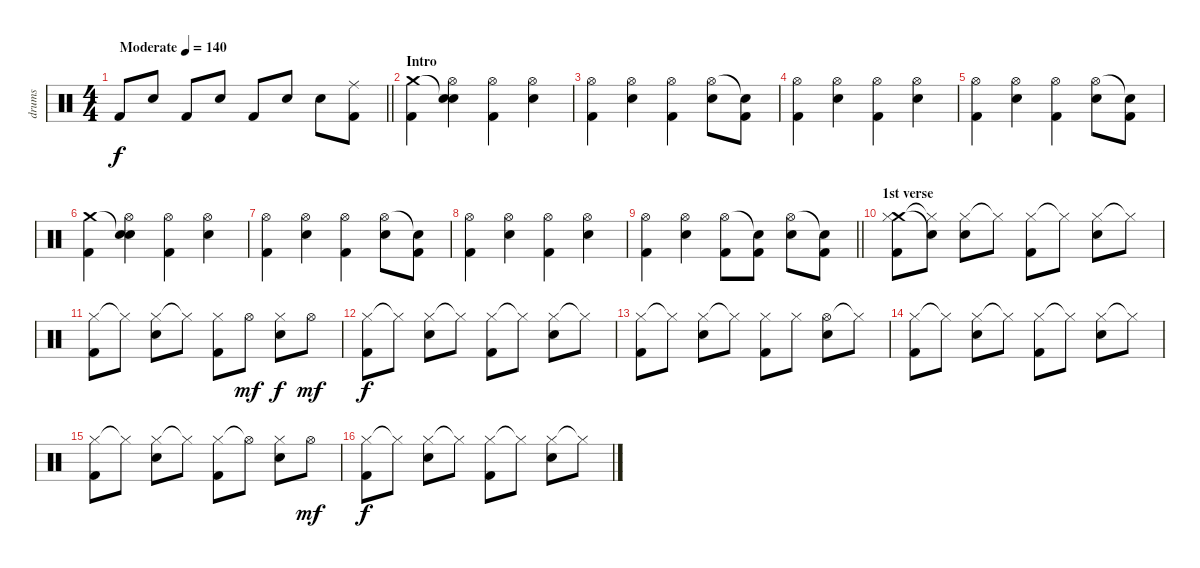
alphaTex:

\track ("drums" "drums") {instrument percussion}
\staff {score}
\articulation defaults
\ts (4 4)
\tempo (140 "Moderate")
\clef neutral
\barLineRight lightlight
\ks c "Kick (hit) 2".8{dy f} "Snare (hit) 2".8 "Kick (hit) 2".8 "Snare (hit) 2".8 "Kick (hit) 2".8 "Snare (hit) 2".8 "Snare (hit) 2".8
("Ride (middle)" "Kick (hit) 2").8 |
\section ("" "Intro")
("Crash medium (hit)" "Kick (hit) 2").4 ("Snare (hit)"{t} "Hi-Hat (open)" "Electric Snare (hit)").4 ("Hi-Hat (open)" "Kick (hit) 2").4 ("Hi-Hat (open)" "Electric Snare (hit)").4 |
("Hi-Hat (open)" "Kick (hit) 2").4 ("Hi-Hat (open)" "Electric Snare (hit)").4 ("Hi-Hat (open)" "Kick (hit) 2").4 ("Hi-Hat (open)" "Electric Snare (hit)").8 ("Snare (hit)"{t} "Kick (hit) 2").8 |
("Hi-Hat (open)" "Kick (hit) 2").4 ("Hi-Hat (open)" "Electric Snare (hit)").4 ("Hi-Hat (open)" "Kick (hit) 2").4 ("Hi-Hat (open)" "Electric Snare (hit)").4 |
("Hi-Hat (open)" "Kick (hit) 2").4 ("Hi-Hat (open)" "Electric Snare (hit)").4 ("Hi-Hat (open)" "Kick (hit) 2").4 ("Hi-Hat (open)" "Electric Snare (hit)").8 ("Snare (hit)"{t} "Kick (hit) 2").8 |
("Crash medium (hit)" "Kick (hit) 2").4 ("Snare (hit)"{t} "Hi-Hat (open)" "Electric Snare (hit)").4 ("Hi-Hat (open)" "Kick (hit) 2").4 ("Hi-Hat (open)" "Electric Snare (hit)").4 |
("Hi-Hat (open)" "Kick (hit) 2").4 ("Hi-Hat (open)" "Electric Snare (hit)").4 ("Hi-Hat (open)" "Kick (hit) 2").4 ("Hi-Hat (open)" "Electric Snare (hit)").8 ("Snare (hit)"{t} "Kick (hit) 2").8 |
("Hi-Hat (open)" "Kick (hit) 2").4 ("Hi-Hat (open)" "Electric Snare (hit)").4 ("Hi-Hat (open)" "Kick (hit) 2").4 ("Hi-Hat (open)" "Electric Snare (hit)").4 |
\barLineRight lightlight
("Hi-Hat (open)" "Kick (hit) 2").4 ("Hi-Hat (open)" "Electric Snare (hit)").4 ("Hi-Hat (open)" "Kick (hit) 2").8 ("Snare (hit)"{t} "Kick (hit) 2").8 ("Hi-Hat (open)" "Electric Snare (hit)").8 ("Snare (hit)"{t} "Kick (hit) 2").8 |
\section ("" "1st verse")
("Crash medium (hit)" "Hi-Hat (closed)" "Kick (hit) 2").8 ("Snare (hit)"{t} "Hi-Hat (closed)"{t}).8 ("Hi-Hat (closed)" "Electric Snare (hit)").8 "Hi-Hat (closed)"{t}.8 ("Hi-Hat (closed)" "Kick (hit) 2").8 "Hi-Hat (closed)"{t}.8 ("Hi-Hat (closed)" "Electric Snare (hit)").8 "Hi-Hat (closed)"{t}.8 |
("Hi-Hat (closed)" "Kick (hit) 2").8 "Hi-Hat (closed)"{t}.8 ("Hi-Hat (closed)" "Electric Snare (hit)").8 "Hi-Hat (closed)"{t}.8 ("Hi-Hat (closed)" "Kick (hit) 2").8 "Hi-Hat (open)".8{dy mf} ("Hi-Hat (closed)" "Electric Snare (hit)").8{dy f} "Hi-Hat (open)".8{dy mf} |
("Hi-Hat (closed)" "Kick (hit) 2").8{dy f} "Hi-Hat (closed)"{t}.8 ("Hi-Hat (closed)" "Electric Snare (hit)").8 "Hi-Hat (closed)"{t}.8 ("Hi-Hat (closed)" "Kick (hit) 2").8 "Hi-Hat (closed)"{t}.8 ("Hi-Hat (closed)" "Electric Snare (hit)").8 "Hi-Hat (closed)"{t}.8 |
("Hi-Hat (closed)" "Kick (hit) 2").8 "Hi-Hat (closed)"{t}.8 ("Hi-Hat (closed)" "Electric Snare (hit)").8 "Hi-Hat (closed)"{t}.8 ("Hi-Hat (closed)" "Kick (hit) 2").8 "Hi-Hat (closed)".8 ("Hi-Hat (open)" "Electric Snare (hit)").8 "Hi-Hat (closed)"{t}.8 |
("Hi-Hat (closed)" "Kick (hit) 2").8 "Hi-Hat (closed)"{t}.8 ("Hi-Hat (closed)" "Electric Snare (hit)").8 "Hi-Hat (closed)"{t}.8 ("Hi-Hat (closed)" "Kick (hit) 2").8 "Hi-Hat (closed)"{t}.8 ("Hi-Hat (closed)" "Electric Snare (hit)").8 "Hi-Hat (closed)"{t}.8 |
("Hi-Hat (closed)" "Kick (hit) 2").8 "Hi-Hat (closed)"{t}.8 ("Hi-Hat (closed)" "Electric Snare (hit)").8 "Hi-Hat (closed)"{t}.8 ("Hi-Hat (closed)" "Kick (hit) 2").8 "Hi-Hat (open)"{t}.8 ("Hi-Hat (closed)" "Electric Snare (hit)").8 "Hi-Hat (open)".8{dy mf} |
("Hi-Hat (closed)" "Kick (hit) 2").8{dy f} "Hi-Hat (closed)"{t}.8 ("Hi-Hat (closed)" "Electric Snare (hit)").8 "Hi-Hat (closed)"{t}.8 ("Hi-Hat (closed)" "Kick (hit) 2").8 "Hi-Hat (closed)"{t}.8 ("Hi-Hat (closed)" "Electric Snare (hit)").8 "Hi-Hat (closed)"{t}.8
